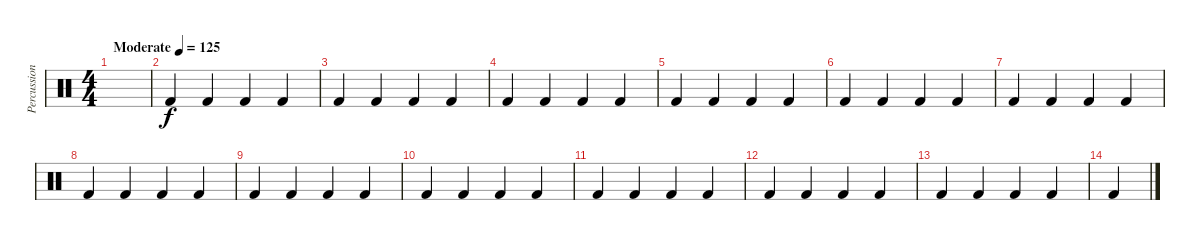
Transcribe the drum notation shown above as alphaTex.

\track ("Percussions" "Percussion") {instrument percussion}
\staff {score}
\articulation defaults
\ts (4 4)
\tempo (125 "Moderate")
\clef neutral
\ks c
|
"Kick (hit) 2".4 "Kick (hit) 2".4 "Kick (hit) 2".4 "Kick (hit) 2".4 |
"Kick (hit) 2".4 "Kick (hit) 2".4 "Kick (hit) 2".4 "Kick (hit) 2".4 |
"Kick (hit) 2".4 "Kick (hit) 2".4 "Kick (hit) 2".4 "Kick (hit) 2".4 |
"Kick (hit) 2".4 "Kick (hit) 2".4 "Kick (hit) 2".4 "Kick (hit) 2".4 |
"Kick (hit) 2".4 "Kick (hit) 2".4 "Kick (hit) 2".4 "Kick (hit) 2".4 |
"Kick (hit) 2".4 "Kick (hit) 2".4 "Kick (hit) 2".4 "Kick (hit) 2".4 |
"Kick (hit) 2".4 "Kick (hit) 2".4 "Kick (hit) 2".4 "Kick (hit) 2".4 |
"Kick (hit) 2".4 "Kick (hit) 2".4 "Kick (hit) 2".4 "Kick (hit) 2".4 |
"Kick (hit) 2".4 "Kick (hit) 2".4 "Kick (hit) 2".4 "Kick (hit) 2".4 |
"Kick (hit) 2".4 "Kick (hit) 2".4 "Kick (hit) 2".4 "Kick (hit) 2".4 |
"Kick (hit) 2".4 "Kick (hit) 2".4 "Kick (hit) 2".4 "Kick (hit) 2".4 |
"Kick (hit) 2".4 "Kick (hit) 2".4 "Kick (hit) 2".4 "Kick (hit) 2".4 |
"Kick (hit) 2".4
